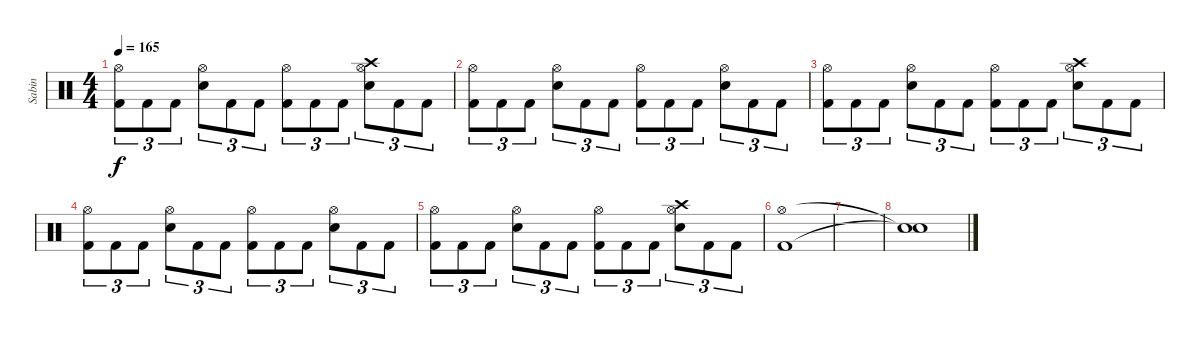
\track ("Sabin" "Sabin") {instrument percussion}
\staff {score}
\articulation defaults
\ts (4 4)
\tempo 165
\clef neutral
\ks c
("Hi-Hat (open)" "Kick (hit) 2").8{tu (3 2) dy f} "Kick (hit) 2".8{tu (3 2)} "Kick (hit) 2".8{tu (3 2)} ("Snare (hit) 2" "Hi-Hat (open)").8{tu (3 2)} "Kick (hit) 2".8{tu (3 2)} "Kick (hit) 2".8{tu (3 2)} ("Hi-Hat (open)" "Kick (hit) 2").8{tu (3 2)} "Kick (hit) 2".8{tu (3 2)} "Kick (hit) 2".8{tu (3 2)} ("Crash high (hit)" "Snare (hit) 2" "Hi-Hat (open)").8{tu (3 2)} "Kick (hit) 2".8{tu (3 2)} "Kick (hit) 2".8{tu (3 2)} |
("Hi-Hat (open)" "Kick (hit) 2").8{tu (3 2)} "Kick (hit) 2".8{tu (3 2)} "Kick (hit) 2".8{tu (3 2)} ("Snare (hit) 2" "Hi-Hat (open)").8{tu (3 2)} "Kick (hit) 2".8{tu (3 2)} "Kick (hit) 2".8{tu (3 2)} ("Hi-Hat (open)" "Kick (hit) 2").8{tu (3 2)} "Kick (hit) 2".8{tu (3 2)} "Kick (hit) 2".8{tu (3 2)} ("Snare (hit) 2" "Hi-Hat (open)").8{tu (3 2)} "Kick (hit) 2".8{tu (3 2)} "Kick (hit) 2".8{tu (3 2)} |
("Hi-Hat (open)" "Kick (hit) 2").8{tu (3 2)} "Kick (hit) 2".8{tu (3 2)} "Kick (hit) 2".8{tu (3 2)} ("Snare (hit) 2" "Hi-Hat (open)").8{tu (3 2)} "Kick (hit) 2".8{tu (3 2)} "Kick (hit) 2".8{tu (3 2)} ("Hi-Hat (open)" "Kick (hit) 2").8{tu (3 2)} "Kick (hit) 2".8{tu (3 2)} "Kick (hit) 2".8{tu (3 2)} ("Crash high (hit)" "Snare (hit) 2" "Hi-Hat (open)").8{tu (3 2)} "Kick (hit) 2".8{tu (3 2)} "Kick (hit) 2".8{tu (3 2)} |
("Hi-Hat (open)" "Kick (hit) 2").8{tu (3 2)} "Kick (hit) 2".8{tu (3 2)} "Kick (hit) 2".8{tu (3 2)} ("Snare (hit) 2" "Hi-Hat (open)").8{tu (3 2)} "Kick (hit) 2".8{tu (3 2)} "Kick (hit) 2".8{tu (3 2)} ("Hi-Hat (open)" "Kick (hit) 2").8{tu (3 2)} "Kick (hit) 2".8{tu (3 2)} "Kick (hit) 2".8{tu (3 2)} ("Snare (hit) 2" "Hi-Hat (open)").8{tu (3 2)} "Kick (hit) 2".8{tu (3 2)} "Kick (hit) 2".8{tu (3 2)} |
("Hi-Hat (open)" "Kick (hit) 2").8{tu (3 2)} "Kick (hit) 2".8{tu (3 2)} "Kick (hit) 2".8{tu (3 2)} ("Snare (hit) 2" "Hi-Hat (open)").8{tu (3 2)} "Kick (hit) 2".8{tu (3 2)} "Kick (hit) 2".8{tu (3 2)} ("Hi-Hat (open)" "Kick (hit) 2").8{tu (3 2)} "Kick (hit) 2".8{tu (3 2)} "Kick (hit) 2".8{tu (3 2)} ("Crash high (hit)" "Snare (hit) 2" "Hi-Hat (open)").8{tu (3 2)} "Kick (hit) 2".8{tu (3 2)} "Kick (hit) 2".8{tu (3 2)} |
("Hi-Hat (open)" "Kick (hit) 2").1 |
|
("Snare (hit)"{t} "Snare (hit)"{t}).1
